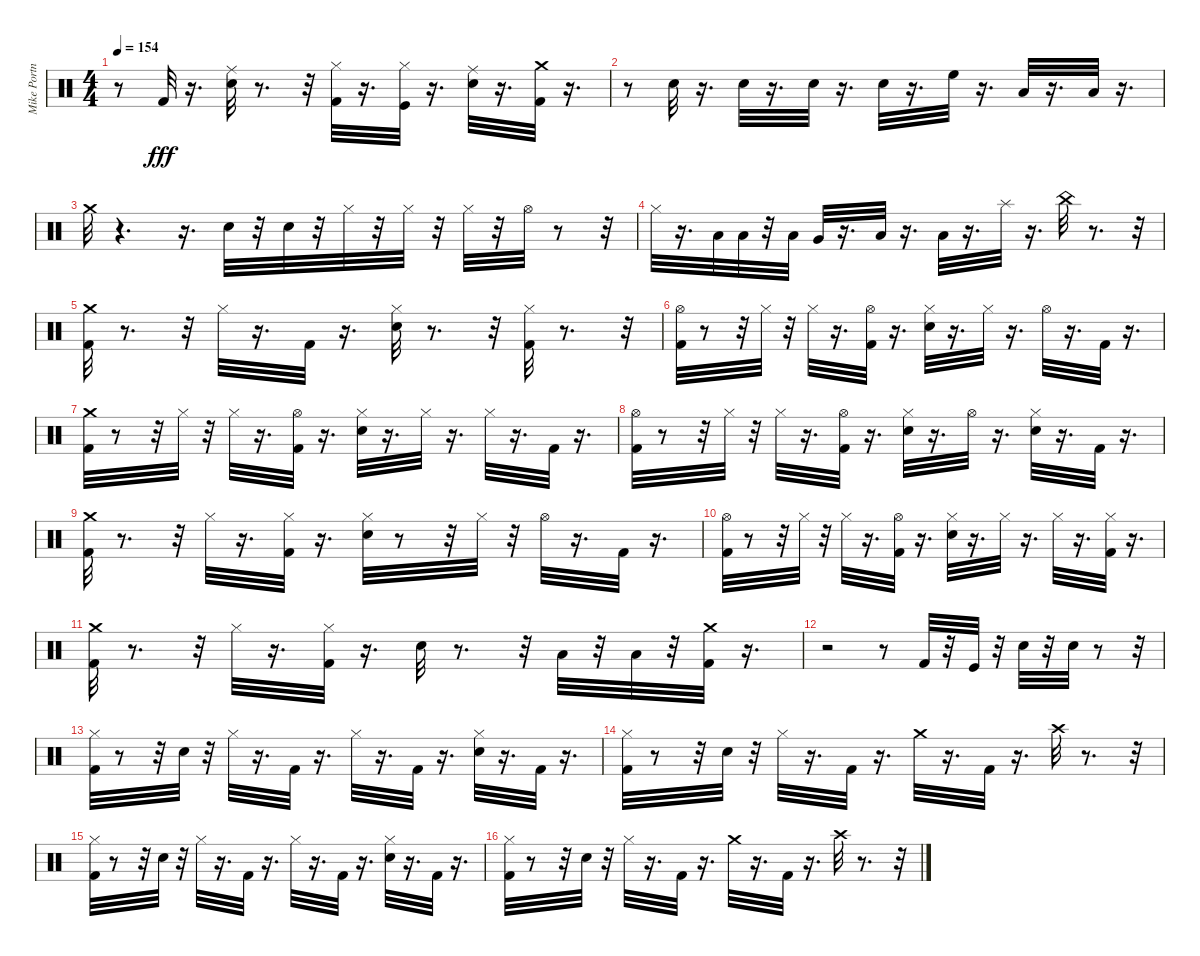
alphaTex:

\track ("Mike Portnoy" "Mike Portn") {instrument percussion}
\staff {score}
\articulation defaults
\ts (4 4)
\tempo 154
\clef neutral
\ks c
r.8{dy fff} "Kick (hit) 2".32 r.16{d} ("Snare (hit) 2" "Ride (middle)").32 r.8{d} r.32 ("Kick (hit) 2" "Hi-Hat (closed)").32 r.16{d} ("Kick (hit)" "Hi-Hat (closed)").32 r.16{d} ("Snare (hit) 2" "Ride (middle)").32 r.16{d} ("Kick (hit) 2" "Crash medium (hit)").32 r.16{d} |
r.8 "Snare (hit) 2".32 r.16{d} "Snare (hit) 2".32 r.16{d} "Snare (hit) 2".32 r.16{d} "Snare (hit) 2".32 r.16{d} "High Floor Tom (hit)".32 r.16{d} "Low Tom (hit)".32 r.16{d} "Low Floor Tom (hit)".32 r.16{d} |
"Crash medium (hit)".32 r.4{d} r.16{d} "Snare (hit) 2".32 r.32 "Snare (hit) 2".32 r.32 "Hi-Hat (closed)".32 r.32 "Hi-Hat (closed)".32 r.32 "Hi-Hat (closed)".32 r.32 "Hi-Hat (open)".32 r.8 r.32 |
"Hi-Hat (closed)".32 r.16{d} "Low Tom (hit)".32 "Low Tom (hit)".32 r.32 "Low Tom (hit)".32 "Very Low Tom (hit)".32 r.16{d} "Low Floor Tom (hit)".32 r.16{d} "Low Floor Tom (hit)".32 r.16{d} "Splash (hit)".32 r.16{d} "China (hit)".32 r.8{d} r.32 |
("Kick (hit) 2" "Crash medium (hit)").32 r.8{d} r.32 "Hi-Hat (closed)".32 r.16{d} "Kick (hit) 2".32 r.16{d} ("Snare (hit) 2" "Hi-Hat (closed)").32 r.8{d} r.32 ("Kick (hit) 2" "Hi-Hat (closed)").32 r.8{d} r.32 |
("Kick (hit) 2" "Hi-Hat (open)").32 r.8 r.32 "Hi-Hat (closed)".32 r.32 "Hi-Hat (closed)".32 r.16{d} ("Kick (hit) 2" "Hi-Hat (open)").32 r.16{d} ("Snare (hit) 2" "Hi-Hat (closed)").32 r.16{d} "Hi-Hat (closed)".32 r.16{d} "Hi-Hat (open)".32 r.16{d} "Kick (hit) 2".32 r.16{d} |
("Kick (hit) 2" "Crash medium (hit)").32 r.8 r.32 "Hi-Hat (closed)".32 r.32 "Hi-Hat (closed)".32 r.16{d} ("Kick (hit) 2" "Hi-Hat (open)").32 r.16{d} ("Snare (hit) 2" "Hi-Hat (closed)").32 r.16{d} "Hi-Hat (closed)".32 r.16{d} "Hi-Hat (closed)".32 r.16{d} "Kick (hit) 2".32 r.16{d} |
("Kick (hit) 2" "Hi-Hat (open)").32 r.8 r.32 "Hi-Hat (closed)".32 r.32 "Hi-Hat (closed)".32 r.16{d} ("Kick (hit) 2" "Hi-Hat (open)").32 r.16{d} ("Snare (hit) 2" "Hi-Hat (closed)").32 r.16{d} "Hi-Hat (open)".32 r.16{d} ("Snare (hit) 2" "Hi-Hat (closed)").32 r.16{d} "Kick (hit) 2".32 r.16{d} |
("Kick (hit) 2" "Crash medium (hit)").32 r.8{d} r.32 "Hi-Hat (closed)".32 r.16{d} ("Kick (hit) 2" "Hi-Hat (closed)").32 r.16{d} ("Snare (hit) 2" "Hi-Hat (closed)").32 r.8 r.32 "Hi-Hat (closed)".32 r.32 "Hi-Hat (open)".32 r.16{d} "Kick (hit) 2".32 r.16{d} |
("Kick (hit) 2" "Hi-Hat (open)").32 r.8 r.32 "Hi-Hat (closed)".32 r.32 "Hi-Hat (closed)".32 r.16{d} ("Kick (hit) 2" "Hi-Hat (open)").32 r.16{d} ("Snare (hit) 2" "Hi-Hat (closed)").32 r.16{d} "Hi-Hat (closed)".32 r.16{d} "Hi-Hat (closed)".32 r.16{d} ("Kick (hit) 2" "Hi-Hat (closed)").32 r.16{d} |
("Kick (hit) 2" "Crash medium (hit)").32 r.8{d} r.32 "Hi-Hat (closed)".32 r.16{d} ("Kick (hit) 2" "Hi-Hat (closed)").32 r.16{d} "Snare (hit) 2".32 r.8{d} r.32 "Low Floor Tom (hit)".32 r.32 "Low Floor Tom (hit)".32 r.32 ("Kick (hit) 2" "Crash medium (hit)").32 r.16{d} |
r.2 r.8 "Kick (hit) 2".32 r.32 "Kick (hit)".32 r.32 "Snare (hit) 2".32 r.32 "Snare (hit) 2".32 r.8 r.32 |
("Kick (hit) 2" "Hi-Hat (closed)").32 r.8 r.32 "Snare (hit) 2".32 r.32 "Hi-Hat (closed)".32 r.16{d} "Kick (hit) 2".32 r.16{d} "Hi-Hat (closed)".32 r.16{d} "Kick (hit) 2".32 r.16{d} ("Snare (hit) 2" "Hi-Hat (closed)").32 r.16{d} "Kick (hit) 2".32 r.16{d} |
("Kick (hit) 2" "Hi-Hat (closed)").32 r.8 r.32 "Snare (hit) 2".32 r.32 "Hi-Hat (closed)".32 r.16{d} "Kick (hit) 2".32 r.16{d} "Crash medium (hit)".32 r.16{d} "Kick (hit) 2".32 r.16{d} "Crash high (hit)".32 r.8{d} r.32 |
("Kick (hit) 2" "Hi-Hat (closed)").32 r.8 r.32 "Snare (hit) 2".32 r.32 "Hi-Hat (closed)".32 r.16{d} "Kick (hit) 2".32 r.16{d} "Hi-Hat (closed)".32 r.16{d} "Kick (hit) 2".32 r.16{d} ("Snare (hit) 2" "Hi-Hat (closed)").32 r.16{d} "Kick (hit) 2".32 r.16{d} |
("Kick (hit) 2" "Hi-Hat (closed)").32 r.8 r.32 "Snare (hit) 2".32 r.32 "Hi-Hat (closed)".32 r.16{d} "Kick (hit) 2".32 r.16{d} "Crash medium (hit)".32 r.16{d} "Kick (hit) 2".32 r.16{d} "Crash high (hit)".32 r.8{d} r.32
